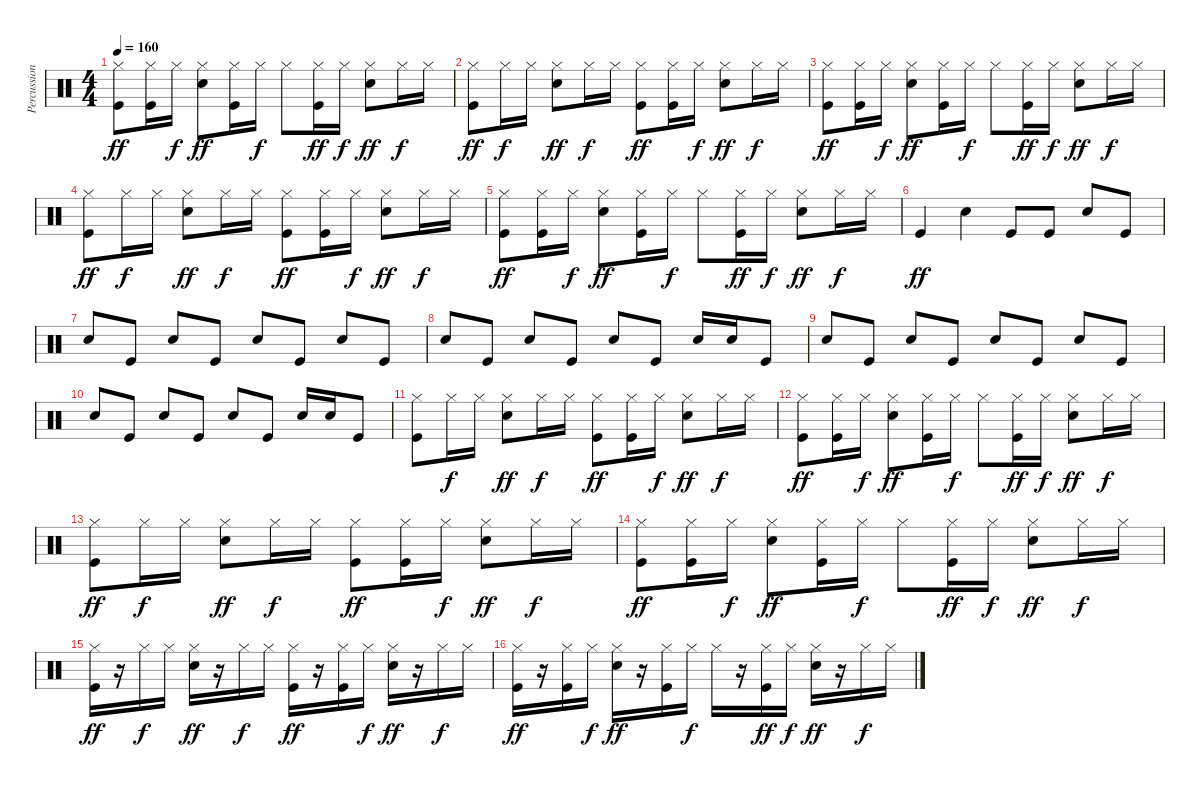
\track ("Percussion" "Percussion") {instrument percussion}
\staff {score}
\articulation defaults
\ts (4 4)
\tempo 160
\clef neutral
\ks c
("Kick (hit)" "Hi-Hat (closed)").8{dy ff} ("Kick (hit)" "Hi-Hat (closed)").16 "Hi-Hat (closed)".16{dy f} ("Snare (hit) 2" "Hi-Hat (closed)").8{dy ff} ("Kick (hit)" "Hi-Hat (closed)").16 "Hi-Hat (closed)".16{dy f} "Hi-Hat (closed)".8 ("Kick (hit)" "Hi-Hat (closed)").16{dy ff} "Hi-Hat (closed)".16{dy f} ("Snare (hit) 2" "Hi-Hat (closed)").8{dy ff} "Hi-Hat (closed)".16{dy f} "Hi-Hat (closed)".16 |
("Kick (hit)" "Hi-Hat (closed)").8{dy ff} "Hi-Hat (closed)".16{dy f} "Hi-Hat (closed)".16 ("Snare (hit) 2" "Hi-Hat (closed)").8{dy ff} "Hi-Hat (closed)".16{dy f} "Hi-Hat (closed)".16 ("Kick (hit)" "Hi-Hat (closed)").8{dy ff} ("Kick (hit)" "Hi-Hat (closed)").16 "Hi-Hat (closed)".16{dy f} ("Snare (hit) 2" "Hi-Hat (closed)").8{dy ff} "Hi-Hat (closed)".16{dy f} "Hi-Hat (closed)".16 |
("Kick (hit)" "Hi-Hat (closed)").8{dy ff} ("Kick (hit)" "Hi-Hat (closed)").16 "Hi-Hat (closed)".16{dy f} ("Snare (hit) 2" "Hi-Hat (closed)").8{dy ff} ("Kick (hit)" "Hi-Hat (closed)").16 "Hi-Hat (closed)".16{dy f} "Hi-Hat (closed)".8 ("Kick (hit)" "Hi-Hat (closed)").16{dy ff} "Hi-Hat (closed)".16{dy f} ("Snare (hit) 2" "Hi-Hat (closed)").8{dy ff} "Hi-Hat (closed)".16{dy f} "Hi-Hat (closed)".16 |
("Kick (hit)" "Hi-Hat (closed)").8{dy ff} "Hi-Hat (closed)".16{dy f} "Hi-Hat (closed)".16 ("Snare (hit) 2" "Hi-Hat (closed)").8{dy ff} "Hi-Hat (closed)".16{dy f} "Hi-Hat (closed)".16 ("Kick (hit)" "Hi-Hat (closed)").8{dy ff} ("Kick (hit)" "Hi-Hat (closed)").16 "Hi-Hat (closed)".16{dy f} ("Snare (hit) 2" "Hi-Hat (closed)").8{dy ff} "Hi-Hat (closed)".16{dy f} "Hi-Hat (closed)".16 |
("Kick (hit)" "Hi-Hat (closed)").8{dy ff} ("Kick (hit)" "Hi-Hat (closed)").16 "Hi-Hat (closed)".16{dy f} ("Snare (hit) 2" "Hi-Hat (closed)").8{dy ff} ("Kick (hit)" "Hi-Hat (closed)").16 "Hi-Hat (closed)".16{dy f} "Hi-Hat (closed)".8 ("Kick (hit)" "Hi-Hat (closed)").16{dy ff} "Hi-Hat (closed)".16{dy f} ("Snare (hit) 2" "Hi-Hat (closed)").8{dy ff} "Hi-Hat (closed)".16{dy f} "Hi-Hat (closed)".16 |
"Kick (hit)".4{dy ff} "Snare (hit) 2".4 "Kick (hit)".8 "Kick (hit)".8 "Snare (hit) 2".8 "Kick (hit)".8 |
"Snare (hit) 2".8 "Kick (hit)".8 "Snare (hit) 2".8 "Kick (hit)".8 "Snare (hit) 2".8 "Kick (hit)".8 "Snare (hit) 2".8 "Kick (hit)".8 |
"Snare (hit) 2".8 "Kick (hit)".8 "Snare (hit) 2".8 "Kick (hit)".8 "Snare (hit) 2".8 "Kick (hit)".8 "Snare (hit) 2".16 "Snare (hit) 2".16 "Kick (hit)".8 |
"Snare (hit) 2".8 "Kick (hit)".8 "Snare (hit) 2".8 "Kick (hit)".8 "Snare (hit) 2".8 "Kick (hit)".8 "Snare (hit) 2".8 "Kick (hit)".8 |
"Snare (hit) 2".8 "Kick (hit)".8 "Snare (hit) 2".8 "Kick (hit)".8 "Snare (hit) 2".8 "Kick (hit)".8 "Snare (hit) 2".16 "Snare (hit) 2".16 "Kick (hit)".8 |
("Kick (hit)" "Hi-Hat (closed)").8 "Hi-Hat (closed)".16{dy f} "Hi-Hat (closed)".16 ("Snare (hit) 2" "Hi-Hat (closed)").8{dy ff} "Hi-Hat (closed)".16{dy f} "Hi-Hat (closed)".16 ("Kick (hit)" "Hi-Hat (closed)").8{dy ff} ("Kick (hit)" "Hi-Hat (closed)").16 "Hi-Hat (closed)".16{dy f} ("Snare (hit) 2" "Hi-Hat (closed)").8{dy ff} "Hi-Hat (closed)".16{dy f} "Hi-Hat (closed)".16 |
("Kick (hit)" "Hi-Hat (closed)").8{dy ff} ("Kick (hit)" "Hi-Hat (closed)").16 "Hi-Hat (closed)".16{dy f} ("Snare (hit) 2" "Hi-Hat (closed)").8{dy ff} ("Kick (hit)" "Hi-Hat (closed)").16 "Hi-Hat (closed)".16{dy f} "Hi-Hat (closed)".8 ("Kick (hit)" "Hi-Hat (closed)").16{dy ff} "Hi-Hat (closed)".16{dy f} ("Snare (hit) 2" "Hi-Hat (closed)").8{dy ff} "Hi-Hat (closed)".16{dy f} "Hi-Hat (closed)".16 |
("Kick (hit)" "Hi-Hat (closed)").8{dy ff} "Hi-Hat (closed)".16{dy f} "Hi-Hat (closed)".16 ("Snare (hit) 2" "Hi-Hat (closed)").8{dy ff} "Hi-Hat (closed)".16{dy f} "Hi-Hat (closed)".16 ("Kick (hit)" "Hi-Hat (closed)").8{dy ff} ("Kick (hit)" "Hi-Hat (closed)").16 "Hi-Hat (closed)".16{dy f} ("Snare (hit) 2" "Hi-Hat (closed)").8{dy ff} "Hi-Hat (closed)".16{dy f} "Hi-Hat (closed)".16 |
("Kick (hit)" "Hi-Hat (closed)").8{dy ff} ("Kick (hit)" "Hi-Hat (closed)").16 "Hi-Hat (closed)".16{dy f} ("Snare (hit) 2" "Hi-Hat (closed)").8{dy ff} ("Kick (hit)" "Hi-Hat (closed)").16 "Hi-Hat (closed)".16{dy f} "Hi-Hat (closed)".8 ("Kick (hit)" "Hi-Hat (closed)").16{dy ff} "Hi-Hat (closed)".16{dy f} ("Snare (hit) 2" "Hi-Hat (closed)").8{dy ff} "Hi-Hat (closed)".16{dy f} "Hi-Hat (closed)".16 |
("Kick (hit)" "Hi-Hat (closed)").16{dy ff} r.16 "Hi-Hat (closed)".16{dy f} "Hi-Hat (closed)".16 ("Snare (hit) 2" "Hi-Hat (closed)").16{dy ff} r.16 "Hi-Hat (closed)".16{dy f} "Hi-Hat (closed)".16 ("Kick (hit)" "Hi-Hat (closed)").16{dy ff} r.16 ("Kick (hit)" "Hi-Hat (closed)").16 "Hi-Hat (closed)".16{dy f} ("Snare (hit) 2" "Hi-Hat (closed)").16{dy ff} r.16 "Hi-Hat (closed)".16{dy f} "Hi-Hat (closed)".16 |
("Kick (hit)" "Hi-Hat (closed)").16{dy ff} r.16 ("Kick (hit)" "Hi-Hat (closed)").16 "Hi-Hat (closed)".16{dy f} ("Snare (hit) 2" "Hi-Hat (closed)").16{dy ff} r.16 ("Kick (hit)" "Hi-Hat (closed)").16 "Hi-Hat (closed)".16{dy f} "Hi-Hat (closed)".16 r.16 ("Kick (hit)" "Hi-Hat (closed)").16{dy ff} "Hi-Hat (closed)".16{dy f} ("Snare (hit) 2" "Hi-Hat (closed)").16{dy ff} r.16 "Hi-Hat (closed)".16{dy f} "Hi-Hat (closed)".16
